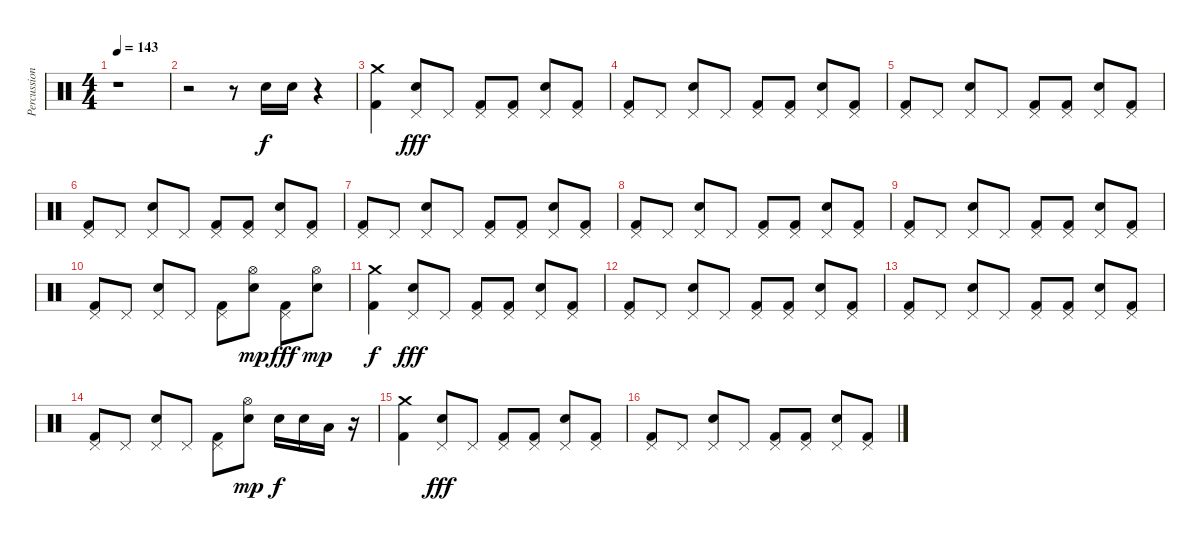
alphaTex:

\track ("Percussion" "Percussion") {instrument percussion}
\staff {score}
\articulation defaults
\ts (4 4)
\tempo 143
\clef neutral
\ks c
r.1{dy f} |
r.2 r.8 "Snare (hit) 2".16 "Snare (hit) 2".16 r.4 |
("Crash medium (hit)" "Kick (hit) 2").4 ("Pedal Hi-Hat (hit)" "Snare (hit) 2").8{dy fff} "Pedal Hi-Hat (hit)".8 ("Pedal Hi-Hat (hit)" "Kick (hit) 2").8 ("Pedal Hi-Hat (hit)" "Kick (hit) 2").8 ("Pedal Hi-Hat (hit)" "Snare (hit) 2").8 ("Pedal Hi-Hat (hit)" "Kick (hit) 2").8 |
("Pedal Hi-Hat (hit)" "Kick (hit) 2").8 "Pedal Hi-Hat (hit)".8 ("Pedal Hi-Hat (hit)" "Snare (hit) 2").8 "Pedal Hi-Hat (hit)".8 ("Pedal Hi-Hat (hit)" "Kick (hit) 2").8 ("Pedal Hi-Hat (hit)" "Kick (hit) 2").8 ("Pedal Hi-Hat (hit)" "Snare (hit) 2").8 ("Pedal Hi-Hat (hit)" "Kick (hit) 2").8 |
("Pedal Hi-Hat (hit)" "Kick (hit) 2").8 "Pedal Hi-Hat (hit)".8 ("Pedal Hi-Hat (hit)" "Snare (hit) 2").8 "Pedal Hi-Hat (hit)".8 ("Pedal Hi-Hat (hit)" "Kick (hit) 2").8 ("Pedal Hi-Hat (hit)" "Kick (hit) 2").8 ("Pedal Hi-Hat (hit)" "Snare (hit) 2").8 ("Pedal Hi-Hat (hit)" "Kick (hit) 2").8 |
("Pedal Hi-Hat (hit)" "Kick (hit) 2").8 "Pedal Hi-Hat (hit)".8 ("Pedal Hi-Hat (hit)" "Snare (hit) 2").8 "Pedal Hi-Hat (hit)".8 ("Pedal Hi-Hat (hit)" "Kick (hit) 2").8 ("Pedal Hi-Hat (hit)" "Kick (hit) 2").8 ("Pedal Hi-Hat (hit)" "Snare (hit) 2").8 ("Pedal Hi-Hat (hit)" "Kick (hit) 2").8 |
("Pedal Hi-Hat (hit)" "Kick (hit) 2").8 "Pedal Hi-Hat (hit)".8 ("Pedal Hi-Hat (hit)" "Snare (hit) 2").8 "Pedal Hi-Hat (hit)".8 ("Pedal Hi-Hat (hit)" "Kick (hit) 2").8 ("Pedal Hi-Hat (hit)" "Kick (hit) 2").8 ("Pedal Hi-Hat (hit)" "Snare (hit) 2").8 ("Pedal Hi-Hat (hit)" "Kick (hit) 2").8 |
("Pedal Hi-Hat (hit)" "Kick (hit) 2").8 "Pedal Hi-Hat (hit)".8 ("Pedal Hi-Hat (hit)" "Snare (hit) 2").8 "Pedal Hi-Hat (hit)".8 ("Pedal Hi-Hat (hit)" "Kick (hit) 2").8 ("Pedal Hi-Hat (hit)" "Kick (hit) 2").8 ("Pedal Hi-Hat (hit)" "Snare (hit) 2").8 ("Pedal Hi-Hat (hit)" "Kick (hit) 2").8 |
("Pedal Hi-Hat (hit)" "Kick (hit) 2").8 "Pedal Hi-Hat (hit)".8 ("Pedal Hi-Hat (hit)" "Snare (hit) 2").8 "Pedal Hi-Hat (hit)".8 ("Pedal Hi-Hat (hit)" "Kick (hit) 2").8 ("Pedal Hi-Hat (hit)" "Kick (hit) 2").8 ("Pedal Hi-Hat (hit)" "Snare (hit) 2").8 ("Pedal Hi-Hat (hit)" "Kick (hit) 2").8 |
("Pedal Hi-Hat (hit)" "Kick (hit) 2").8 "Pedal Hi-Hat (hit)".8 ("Pedal Hi-Hat (hit)" "Snare (hit) 2").8 "Pedal Hi-Hat (hit)".8 ("Pedal Hi-Hat (hit)" "Kick (hit) 2").8 ("Hi-Hat (open)" "Snare (hit) 2").8{dy mp} ("Pedal Hi-Hat (hit)" "Kick (hit) 2").8{dy fff} ("Hi-Hat (open)" "Snare (hit) 2").8{dy mp} |
("Crash medium (hit)" "Kick (hit) 2").4{dy f} ("Pedal Hi-Hat (hit)" "Snare (hit) 2").8{dy fff} "Pedal Hi-Hat (hit)".8 ("Pedal Hi-Hat (hit)" "Kick (hit) 2").8 ("Pedal Hi-Hat (hit)" "Kick (hit) 2").8 ("Pedal Hi-Hat (hit)" "Snare (hit) 2").8 ("Pedal Hi-Hat (hit)" "Kick (hit) 2").8 |
("Pedal Hi-Hat (hit)" "Kick (hit) 2").8 "Pedal Hi-Hat (hit)".8 ("Pedal Hi-Hat (hit)" "Snare (hit) 2").8 "Pedal Hi-Hat (hit)".8 ("Pedal Hi-Hat (hit)" "Kick (hit) 2").8 ("Pedal Hi-Hat (hit)" "Kick (hit) 2").8 ("Pedal Hi-Hat (hit)" "Snare (hit) 2").8 ("Pedal Hi-Hat (hit)" "Kick (hit) 2").8 |
("Pedal Hi-Hat (hit)" "Kick (hit) 2").8 "Pedal Hi-Hat (hit)".8 ("Pedal Hi-Hat (hit)" "Snare (hit) 2").8 "Pedal Hi-Hat (hit)".8 ("Pedal Hi-Hat (hit)" "Kick (hit) 2").8 ("Pedal Hi-Hat (hit)" "Kick (hit) 2").8 ("Pedal Hi-Hat (hit)" "Snare (hit) 2").8 ("Pedal Hi-Hat (hit)" "Kick (hit) 2").8 |
("Pedal Hi-Hat (hit)" "Kick (hit) 2").8 "Pedal Hi-Hat (hit)".8 ("Pedal Hi-Hat (hit)" "Snare (hit) 2").8 "Pedal Hi-Hat (hit)".8 ("Pedal Hi-Hat (hit)" "Kick (hit) 2").8 ("Hi-Hat (open)"{pm} "Snare (hit) 2").8{dy mp} "Snare (hit) 2".16{dy f} "Snare (hit) 2".16 "Low Tom (hit)".16 r.16 |
("Crash medium (hit)" "Kick (hit) 2").4 ("Pedal Hi-Hat (hit)" "Snare (hit) 2").8{dy fff} "Pedal Hi-Hat (hit)".8 ("Pedal Hi-Hat (hit)" "Kick (hit) 2").8 ("Pedal Hi-Hat (hit)" "Kick (hit) 2").8 ("Pedal Hi-Hat (hit)" "Snare (hit) 2").8 ("Pedal Hi-Hat (hit)" "Kick (hit) 2").8 |
("Pedal Hi-Hat (hit)" "Kick (hit) 2").8 "Pedal Hi-Hat (hit)".8 ("Pedal Hi-Hat (hit)" "Snare (hit) 2").8 "Pedal Hi-Hat (hit)".8 ("Pedal Hi-Hat (hit)" "Kick (hit) 2").8 ("Pedal Hi-Hat (hit)" "Kick (hit) 2").8 ("Pedal Hi-Hat (hit)" "Snare (hit) 2").8 ("Pedal Hi-Hat (hit)" "Kick (hit) 2").8
